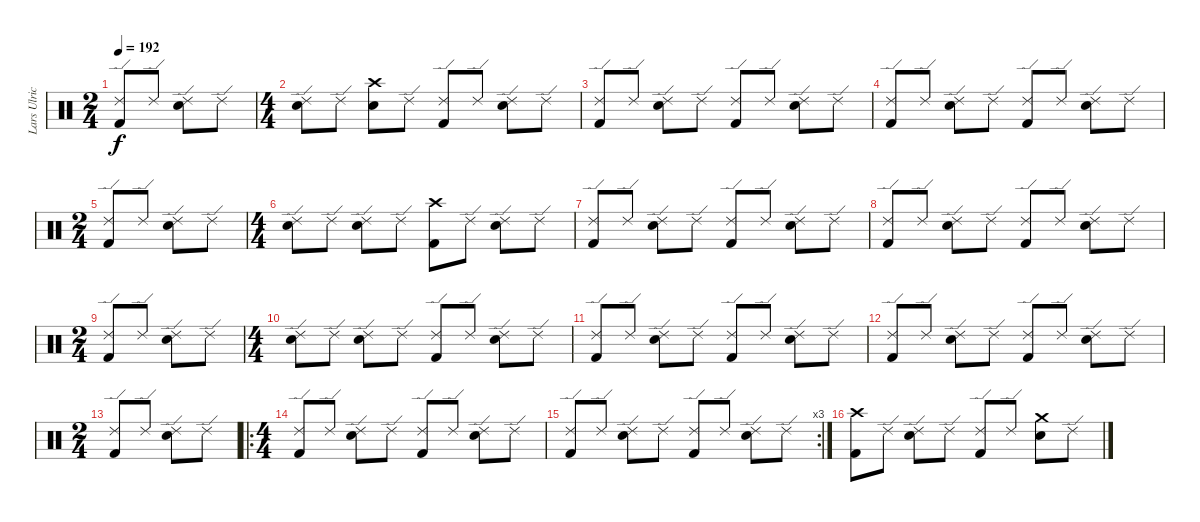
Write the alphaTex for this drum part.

\track ("Lars Ulrich" "Lars Ulric") {instrument percussion}
\staff {score}
\articulation defaults
\ts (2 4)
\tempo 192
\clef neutral
\ks c
("Ride (edge) 2" "Kick (hit) 2").8{dy f} "Ride (edge) 2".8 ("Ride (edge) 2" "Snare (hit) 2").8 "Ride (edge) 2".8 |
\ts (4 4)
("Ride (edge) 2" "Snare (hit) 2").8 "Ride (edge) 2".8 ("Crash high (hit)" "Snare (hit) 2").8 "Ride (edge) 2".8 ("Ride (edge) 2" "Kick (hit) 2").8 "Ride (edge) 2".8 ("Ride (edge) 2" "Snare (hit) 2").8 "Ride (edge) 2".8 |
("Ride (edge) 2" "Kick (hit) 2").8 "Ride (edge) 2".8 ("Ride (edge) 2" "Snare (hit) 2").8 "Ride (edge) 2".8 ("Ride (edge) 2" "Kick (hit) 2").8 "Ride (edge) 2".8 ("Ride (edge) 2" "Snare (hit) 2").8 "Ride (edge) 2".8 |
("Ride (edge) 2" "Kick (hit) 2").8 "Ride (edge) 2".8 ("Ride (edge) 2" "Snare (hit) 2").8 "Ride (edge) 2".8 ("Ride (edge) 2" "Kick (hit) 2").8 "Ride (edge) 2".8 ("Ride (edge) 2" "Snare (hit) 2").8 "Ride (edge) 2".8 |
\ts (2 4)
("Ride (edge) 2" "Kick (hit) 2").8 "Ride (edge) 2".8 ("Ride (edge) 2" "Snare (hit) 2").8 "Ride (edge) 2".8 |
\ts (4 4)
("Ride (edge) 2" "Snare (hit) 2").8 "Ride (edge) 2".8 ("Ride (edge) 2" "Snare (hit) 2").8 "Ride (edge) 2".8 ("Crash high (hit)" "Kick (hit) 2").8 "Ride (edge) 2".8 ("Ride (edge) 2" "Snare (hit) 2").8 "Ride (edge) 2".8 |
("Ride (edge) 2" "Kick (hit) 2").8 "Ride (edge) 2".8 ("Ride (edge) 2" "Snare (hit) 2").8 "Ride (edge) 2".8 ("Ride (edge) 2" "Kick (hit) 2").8 "Ride (edge) 2".8 ("Ride (edge) 2" "Snare (hit) 2").8 "Ride (edge) 2".8 |
("Ride (edge) 2" "Kick (hit) 2").8 "Ride (edge) 2".8 ("Ride (edge) 2" "Snare (hit) 2").8 "Ride (edge) 2".8 ("Ride (edge) 2" "Kick (hit) 2").8 "Ride (edge) 2".8 ("Ride (edge) 2" "Snare (hit) 2").8 "Ride (edge) 2".8 |
\ts (2 4)
("Ride (edge) 2" "Kick (hit) 2").8 "Ride (edge) 2".8 ("Ride (edge) 2" "Snare (hit) 2").8 "Ride (edge) 2".8 |
\ts (4 4)
("Ride (edge) 2" "Snare (hit) 2").8 "Ride (edge) 2".8 ("Ride (edge) 2" "Snare (hit) 2").8 "Ride (edge) 2".8 ("Ride (edge) 2" "Kick (hit) 2").8 "Ride (edge) 2".8 ("Ride (edge) 2" "Snare (hit) 2").8 "Ride (edge) 2".8 |
("Ride (edge) 2" "Kick (hit) 2").8 "Ride (edge) 2".8 ("Ride (edge) 2" "Snare (hit) 2").8 "Ride (edge) 2".8 ("Ride (edge) 2" "Kick (hit) 2").8 "Ride (edge) 2".8 ("Ride (edge) 2" "Snare (hit) 2").8 "Ride (edge) 2".8 |
("Ride (edge) 2" "Kick (hit) 2").8 "Ride (edge) 2".8 ("Ride (edge) 2" "Snare (hit) 2").8 "Ride (edge) 2".8 ("Ride (edge) 2" "Kick (hit) 2").8 "Ride (edge) 2".8 ("Ride (edge) 2" "Snare (hit) 2").8 "Ride (edge) 2".8 |
\ts (2 4)
("Ride (edge) 2" "Kick (hit) 2").8 "Ride (edge) 2".8 ("Ride (edge) 2" "Snare (hit) 2").8 "Ride (edge) 2".8 |
\ro
\ts (4 4)
("Ride (edge) 2" "Kick (hit) 2").8 "Ride (edge) 2".8 ("Ride (edge) 2" "Snare (hit) 2").8 "Ride (edge) 2".8 ("Ride (edge) 2" "Kick (hit) 2").8 "Ride (edge) 2".8 ("Ride (edge) 2" "Snare (hit) 2").8 "Ride (edge) 2".8 |
\rc 3
("Ride (edge) 2" "Kick (hit) 2").8 "Ride (edge) 2".8 ("Ride (edge) 2" "Snare (hit) 2").8 "Ride (edge) 2".8 ("Ride (edge) 2" "Kick (hit) 2").8 "Ride (edge) 2".8 ("Ride (edge) 2" "Snare (hit) 2").8 "Ride (edge) 2".8 |
("Crash high (hit)" "Kick (hit) 2").8 "Ride (edge) 2".8 ("Ride (edge) 2" "Snare (hit) 2").8 "Ride (edge) 2".8 ("Ride (edge) 2" "Kick (hit) 2").8 "Ride (edge) 2".8 ("Crash medium (hit)" "Snare (hit) 2").8 "Ride (edge) 2".8
